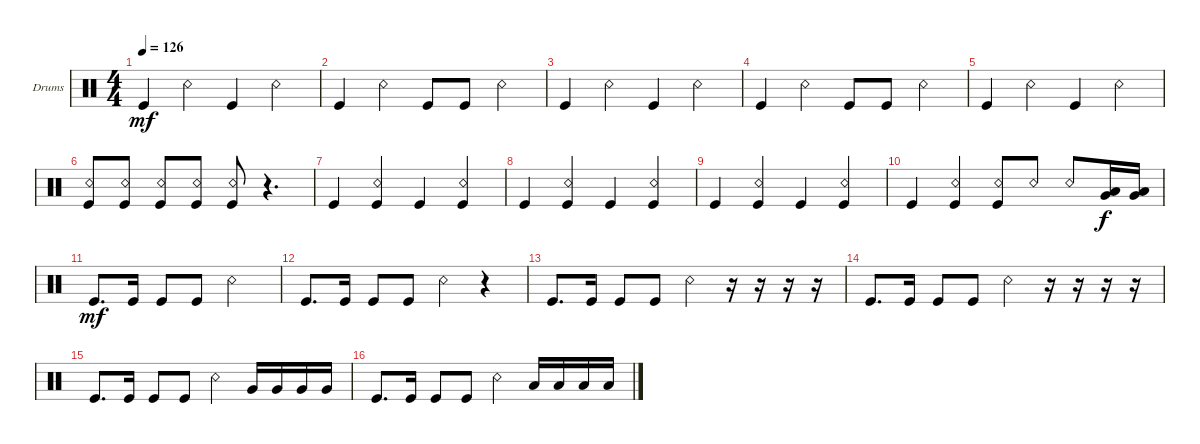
\defaultSystemsLayout 4
\bracketExtendMode groupsimilarinstruments
\firstSystemTrackNameOrientation horizontal
\otherSystemsTrackNameOrientation horizontal
\track ("Drumkit" "Drums") {instrument percussion}
\staff {score}
\articulation defaults
\ts (4 4)
\tempo 126
\clef neutral
\ks c "Kick (hit)".4{dy mf} "Snare (rim shot)".4 "Kick (hit)".4 "Snare (rim shot)".4
|
"Kick (hit)".4 "Snare (rim shot)".4 "Kick (hit)".8 "Kick (hit)".8 "Snare (rim shot)".4 |
"Kick (hit)".4 "Snare (rim shot)".4 "Kick (hit)".4 "Snare (rim shot)".4 |
"Kick (hit)".4 "Snare (rim shot)".4 "Kick (hit)".8 "Kick (hit)".8 "Snare (rim shot)".4 |
"Kick (hit)".4 "Snare (rim shot)".4 "Kick (hit)".4 "Snare (rim shot)".4 |
("Kick (hit)" "Snare (rim shot)").8 ("Snare (rim shot)" "Kick (hit)").8 ("Kick (hit)" "Snare (rim shot)").8 ("Kick (hit)" "Snare (rim shot)").8 ("Snare (rim shot)" "Kick (hit)").8 r.4{d} |
"Kick (hit)".4 ("Kick (hit)" "Snare (rim shot)").4 "Kick (hit)".4 ("Kick (hit)" "Snare (rim shot)").4 |
"Kick (hit)".4 ("Kick (hit)" "Snare (rim shot)").4 "Kick (hit)".4 ("Kick (hit)" "Snare (rim shot)").4 |
"Kick (hit)".4 ("Kick (hit)" "Snare (rim shot)").4 "Kick (hit)".4 ("Kick (hit)" "Snare (rim shot)").4 |
"Kick (hit)".4 ("Kick (hit)" "Snare (rim shot)").4 ("Kick (hit)" "Snare (rim shot)").8 "Snare (rim shot)".8 "Snare (rim shot)".8 ("Very Low Tom (hit)" "Low Tom (hit)").16{dy f} ("Low Tom (hit)" "Very Low Tom (hit)").16 |
"Kick (hit)".8{d dy mf} "Kick (hit)".16 "Kick (hit)".8 "Kick (hit)".8 "Snare (rim shot)".2 |
"Kick (hit)".8{d} "Kick (hit)".16 "Kick (hit)".8 "Kick (hit)".8 "Snare (rim shot)".4 r.4 |
"Kick (hit)".8{d} "Kick (hit)".16 "Kick (hit)".8 "Kick (hit)".8 "Snare (rim shot)".4 r.16 r.16 r.16 r.16 |
"Kick (hit)".8{d} "Kick (hit)".16 "Kick (hit)".8 "Kick (hit)".8 "Snare (rim shot)".4 r.16 r.16 r.16 r.16 |
"Kick (hit)".8{d} "Kick (hit)".16 "Kick (hit)".8 "Kick (hit)".8 "Snare (rim shot)".4 "Very Low Tom (hit)".16 "Very Low Tom (hit)".16 "Very Low Tom (hit)".16 "Very Low Tom (hit)".16 |
"Kick (hit)".8{d} "Kick (hit)".16 "Kick (hit)".8 "Kick (hit)".8 "Snare (rim shot)".4 "Low Tom (hit)".16 "Low Tom (hit)".16 "Low Tom (hit)".16 "Low Tom (hit)".16
